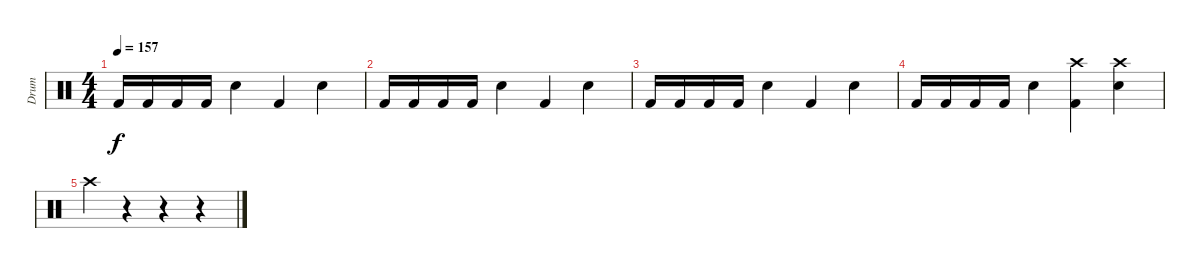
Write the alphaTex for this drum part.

\track ("Drum" "Drum") {instrument percussion}
\staff {score}
\articulation defaults
\ts (4 4)
\tempo 157
\clef neutral
\ks c "Kick (hit) 2".16{dy f} "Kick (hit) 2".16 "Kick (hit) 2".16 "Kick (hit) 2".16 "Electric Snare (hit)".4 "Kick (hit) 2".4 "Electric Snare (hit)".4
|
"Kick (hit) 2".16 "Kick (hit) 2".16 "Kick (hit) 2".16 "Kick (hit) 2".16 "Electric Snare (hit)".4 "Kick (hit) 2".4 "Electric Snare (hit)".4 |
"Kick (hit) 2".16 "Kick (hit) 2".16 "Kick (hit) 2".16 "Kick (hit) 2".16 "Electric Snare (hit)".4 "Kick (hit) 2".4 "Electric Snare (hit)".4 |
"Kick (hit) 2".16 "Kick (hit) 2".16 "Kick (hit) 2".16 "Kick (hit) 2".16 "Electric Snare (hit)".4 ("Crash high (hit)" "Kick (hit) 2").4 ("Crash high (hit)" "Electric Snare (hit)").4 |
"Crash high (hit)".4 r.4 r.4 r.4
